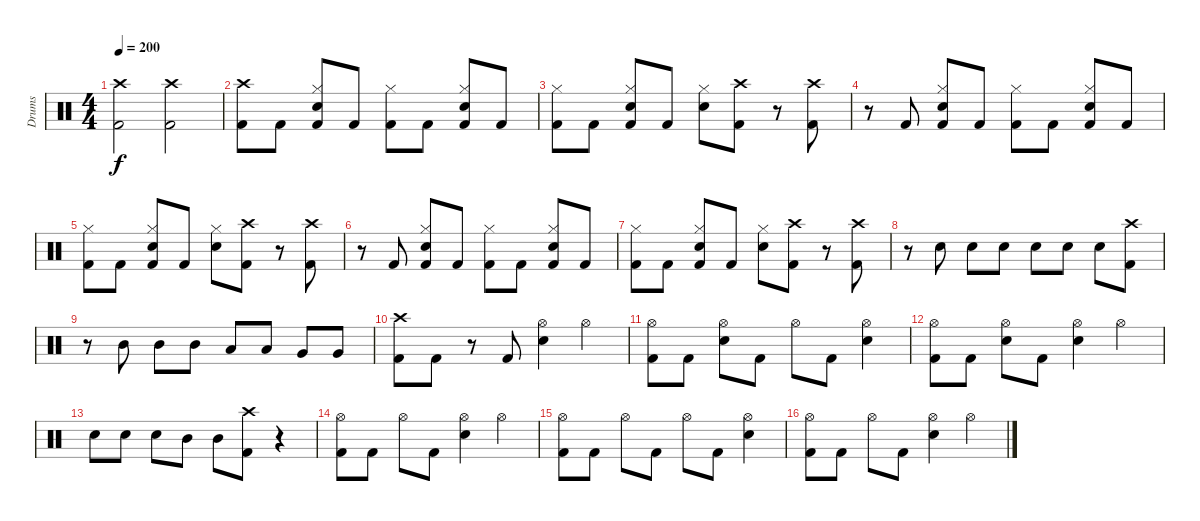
\track ("Drums" "Drums") {instrument percussion}
\staff {score}
\articulation defaults
\ts (4 4)
\tempo 200
\clef neutral
\ks c
("Crash high (hit)" "Kick (hit) 2").2{dy f} ("Crash high (hit)" "Kick (hit) 2").2 |
("Crash high (hit)" "Kick (hit) 2").8 "Kick (hit) 2".8 ("Hi-Hat (closed)" "Electric Snare (hit)" "Kick (hit) 2").8 "Kick (hit) 2".8 ("Hi-Hat (closed)" "Kick (hit) 2").8 "Kick (hit) 2".8 ("Hi-Hat (closed)" "Electric Snare (hit)" "Kick (hit) 2").8 "Kick (hit) 2".8 |
("Hi-Hat (closed)" "Kick (hit) 2").8 "Kick (hit) 2".8 ("Hi-Hat (closed)" "Electric Snare (hit)" "Kick (hit) 2").8 "Kick (hit) 2".8 ("Hi-Hat (closed)" "Electric Snare (hit)").8 ("Crash high (hit)" "Kick (hit) 2").8 r.8 ("Crash high (hit)" "Kick (hit) 2").8 |
r.8 "Kick (hit) 2".8 ("Hi-Hat (closed)" "Electric Snare (hit)" "Kick (hit) 2").8 "Kick (hit) 2".8 ("Hi-Hat (closed)" "Kick (hit) 2").8 "Kick (hit) 2".8 ("Hi-Hat (closed)" "Electric Snare (hit)" "Kick (hit) 2").8 "Kick (hit) 2".8 |
("Hi-Hat (closed)" "Kick (hit) 2").8 "Kick (hit) 2".8 ("Hi-Hat (closed)" "Electric Snare (hit)" "Kick (hit) 2").8 "Kick (hit) 2".8 ("Hi-Hat (closed)" "Electric Snare (hit)").8 ("Crash high (hit)" "Kick (hit) 2").8 r.8 ("Crash high (hit)" "Kick (hit) 2").8 |
r.8 "Kick (hit) 2".8 ("Hi-Hat (closed)" "Electric Snare (hit)" "Kick (hit) 2").8 "Kick (hit) 2".8 ("Hi-Hat (closed)" "Kick (hit) 2").8 "Kick (hit) 2".8 ("Hi-Hat (closed)" "Electric Snare (hit)" "Kick (hit) 2").8 "Kick (hit) 2".8 |
("Hi-Hat (closed)" "Kick (hit) 2").8 "Kick (hit) 2".8 ("Hi-Hat (closed)" "Electric Snare (hit)" "Kick (hit) 2").8 "Kick (hit) 2".8 ("Hi-Hat (closed)" "Electric Snare (hit)").8 ("Crash high (hit)" "Kick (hit) 2").8 r.8 ("Crash high (hit)" "Kick (hit) 2").8 |
r.8 "Electric Snare (hit)".8 "Electric Snare (hit)".8 "Electric Snare (hit)".8 "Electric Snare (hit)".8 "Electric Snare (hit)".8 "Electric Snare (hit)".8 ("Crash high (hit)" "Kick (hit) 2").8 |
r.8 "Mid Tom (hit)".8 "Mid Tom (hit)".8 "Mid Tom (hit)".8 "Low Tom (hit)".8 "Low Tom (hit)".8 "Very Low Tom (hit)".8 "Very Low Tom (hit)".8 |
("Crash high (hit)" "Kick (hit) 2").8 "Kick (hit) 2".8 r.8 "Kick (hit) 2".8 ("Hi-Hat (open)" "Electric Snare (hit)").4 "Hi-Hat (open)".4 |
("Hi-Hat (open)" "Kick (hit) 2").8 "Kick (hit) 2".8 ("Hi-Hat (open)" "Electric Snare (hit)").8 "Kick (hit) 2".8 "Hi-Hat (open)".8 "Kick (hit) 2".8 ("Hi-Hat (open)" "Electric Snare (hit)").4 |
("Hi-Hat (open)" "Kick (hit) 2").8 "Kick (hit) 2".8 ("Hi-Hat (open)" "Electric Snare (hit)").8 "Kick (hit) 2".8 ("Hi-Hat (open)" "Electric Snare (hit)").4 "Hi-Hat (open)".4 |
"Electric Snare (hit)".8 "Electric Snare (hit)".8 "Electric Snare (hit)".8 "Mid Tom (hit)".8 "Mid Tom (hit)".8 ("Crash high (hit)" "Kick (hit) 2").8 r.4 |
("Hi-Hat (open)" "Kick (hit) 2").8 "Kick (hit) 2".8 "Hi-Hat (open)".8 "Kick (hit) 2".8 ("Hi-Hat (open)" "Electric Snare (hit)").4 "Hi-Hat (open)".4 |
("Hi-Hat (open)" "Kick (hit) 2").8 "Kick (hit) 2".8 "Hi-Hat (open)".8 "Kick (hit) 2".8 "Hi-Hat (open)".8 "Kick (hit) 2".8 ("Hi-Hat (open)" "Electric Snare (hit)").4 |
("Hi-Hat (open)" "Kick (hit) 2").8 "Kick (hit) 2".8 "Hi-Hat (open)".8 "Kick (hit) 2".8 ("Hi-Hat (open)" "Electric Snare (hit)").4 "Hi-Hat (open)".4
